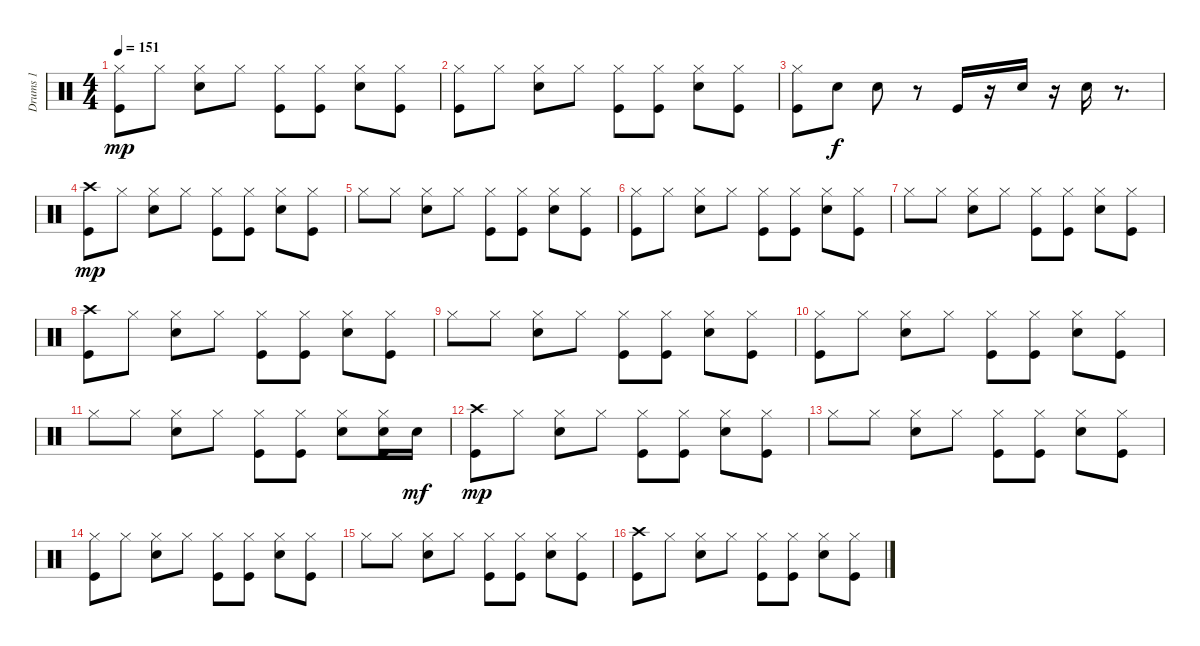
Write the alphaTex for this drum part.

\track ("Drums 1" "Drums 1") {instrument percussion}
\staff {score}
\articulation defaults
\ts (4 4)
\tempo 151
\clef neutral
\ks c
("Hi-Hat (closed)" "Kick (hit)").8{dy mp} "Hi-Hat (closed)".8 ("Hi-Hat (closed)" "Snare (hit) 2").8 "Hi-Hat (closed)".8 ("Hi-Hat (closed)" "Kick (hit)").8 ("Kick (hit)" "Hi-Hat (closed)").8 ("Hi-Hat (closed)" "Snare (hit) 2").8 ("Hi-Hat (closed)" "Kick (hit)").8 |
("Hi-Hat (closed)" "Kick (hit)").8 "Hi-Hat (closed)".8 ("Hi-Hat (closed)" "Snare (hit) 2").8 "Hi-Hat (closed)".8 ("Hi-Hat (closed)" "Kick (hit)").8 ("Kick (hit)" "Hi-Hat (closed)").8 ("Hi-Hat (closed)" "Snare (hit) 2").8 ("Hi-Hat (closed)" "Kick (hit)").8 |
("Hi-Hat (closed)" "Kick (hit)").8 "Snare (hit) 2".8{dy f} "Snare (hit) 2".8 r.8 "Kick (hit)".16 r.16 "Snare (hit) 2".16 r.16 "Snare (hit) 2".16 r.8{d} |
("Crash high (hit)" "Kick (hit)").8{dy mp} "Hi-Hat (closed)".8 ("Hi-Hat (closed)" "Snare (hit) 2").8 "Hi-Hat (closed)".8 ("Hi-Hat (closed)" "Kick (hit)").8 ("Kick (hit)" "Hi-Hat (closed)").8 ("Hi-Hat (closed)" "Snare (hit) 2").8 ("Hi-Hat (closed)" "Kick (hit)").8 |
"Hi-Hat (closed)".8 "Hi-Hat (closed)".8 ("Hi-Hat (closed)" "Snare (hit) 2").8 "Hi-Hat (closed)".8 ("Kick (hit)" "Hi-Hat (closed)").8 ("Kick (hit)" "Hi-Hat (closed)").8 ("Snare (hit) 2" "Hi-Hat (closed)").8 ("Hi-Hat (closed)" "Kick (hit)").8 |
("Hi-Hat (closed)" "Kick (hit)").8 "Hi-Hat (closed)".8 ("Hi-Hat (closed)" "Snare (hit) 2").8 "Hi-Hat (closed)".8 ("Hi-Hat (closed)" "Kick (hit)").8 ("Kick (hit)" "Hi-Hat (closed)").8 ("Hi-Hat (closed)" "Snare (hit) 2").8 ("Hi-Hat (closed)" "Kick (hit)").8 |
"Hi-Hat (closed)".8 "Hi-Hat (closed)".8 ("Hi-Hat (closed)" "Snare (hit) 2").8 "Hi-Hat (closed)".8 ("Kick (hit)" "Hi-Hat (closed)").8 ("Kick (hit)" "Hi-Hat (closed)").8 ("Snare (hit) 2" "Hi-Hat (closed)").8 ("Hi-Hat (closed)" "Kick (hit)").8 |
("Crash high (hit)" "Kick (hit)").8 "Hi-Hat (closed)".8 ("Hi-Hat (closed)" "Snare (hit) 2").8 "Hi-Hat (closed)".8 ("Hi-Hat (closed)" "Kick (hit)").8 ("Kick (hit)" "Hi-Hat (closed)").8 ("Hi-Hat (closed)" "Snare (hit) 2").8 ("Hi-Hat (closed)" "Kick (hit)").8 |
"Hi-Hat (closed)".8 "Hi-Hat (closed)".8 ("Hi-Hat (closed)" "Snare (hit) 2").8 "Hi-Hat (closed)".8 ("Kick (hit)" "Hi-Hat (closed)").8 ("Kick (hit)" "Hi-Hat (closed)").8 ("Snare (hit) 2" "Hi-Hat (closed)").8 ("Hi-Hat (closed)" "Kick (hit)").8 |
("Hi-Hat (closed)" "Kick (hit)").8 "Hi-Hat (closed)".8 ("Hi-Hat (closed)" "Snare (hit) 2").8 "Hi-Hat (closed)".8 ("Hi-Hat (closed)" "Kick (hit)").8 ("Kick (hit)" "Hi-Hat (closed)").8 ("Hi-Hat (closed)" "Snare (hit) 2").8 ("Hi-Hat (closed)" "Kick (hit)").8 |
"Hi-Hat (closed)".8 "Hi-Hat (closed)".8 ("Hi-Hat (closed)" "Snare (hit) 2").8 "Hi-Hat (closed)".8 ("Kick (hit)" "Hi-Hat (closed)").8 ("Kick (hit)" "Hi-Hat (closed)").8 ("Snare (hit) 2" "Hi-Hat (closed)").8 ("Snare (hit) 2" "Hi-Hat (closed)" "Kick (hit)").16 "Snare (hit) 2".16{dy mf} |
("Crash high (hit)" "Kick (hit)").8{dy mp} "Hi-Hat (closed)".8 ("Hi-Hat (closed)" "Snare (hit) 2").8 "Hi-Hat (closed)".8 ("Hi-Hat (closed)" "Kick (hit)").8 ("Kick (hit)" "Hi-Hat (closed)").8 ("Hi-Hat (closed)" "Snare (hit) 2").8 ("Hi-Hat (closed)" "Kick (hit)").8 |
"Hi-Hat (closed)".8 "Hi-Hat (closed)".8 ("Hi-Hat (closed)" "Snare (hit) 2").8 "Hi-Hat (closed)".8 ("Kick (hit)" "Hi-Hat (closed)").8 ("Kick (hit)" "Hi-Hat (closed)").8 ("Snare (hit) 2" "Hi-Hat (closed)").8 ("Hi-Hat (closed)" "Kick (hit)").8 |
("Hi-Hat (closed)" "Kick (hit)").8 "Hi-Hat (closed)".8 ("Hi-Hat (closed)" "Snare (hit) 2").8 "Hi-Hat (closed)".8 ("Hi-Hat (closed)" "Kick (hit)").8 ("Kick (hit)" "Hi-Hat (closed)").8 ("Hi-Hat (closed)" "Snare (hit) 2").8 ("Hi-Hat (closed)" "Kick (hit)").8 |
"Hi-Hat (closed)".8 "Hi-Hat (closed)".8 ("Hi-Hat (closed)" "Snare (hit) 2").8 "Hi-Hat (closed)".8 ("Kick (hit)" "Hi-Hat (closed)").8 ("Kick (hit)" "Hi-Hat (closed)").8 ("Snare (hit) 2" "Hi-Hat (closed)").8 ("Hi-Hat (closed)" "Kick (hit)").8 |
("Crash high (hit)" "Kick (hit)").8 "Hi-Hat (closed)".8 ("Hi-Hat (closed)" "Snare (hit) 2").8 "Hi-Hat (closed)".8 ("Hi-Hat (closed)" "Kick (hit)").8 ("Kick (hit)" "Hi-Hat (closed)").8 ("Hi-Hat (closed)" "Snare (hit) 2").8 ("Hi-Hat (closed)" "Kick (hit)").8
